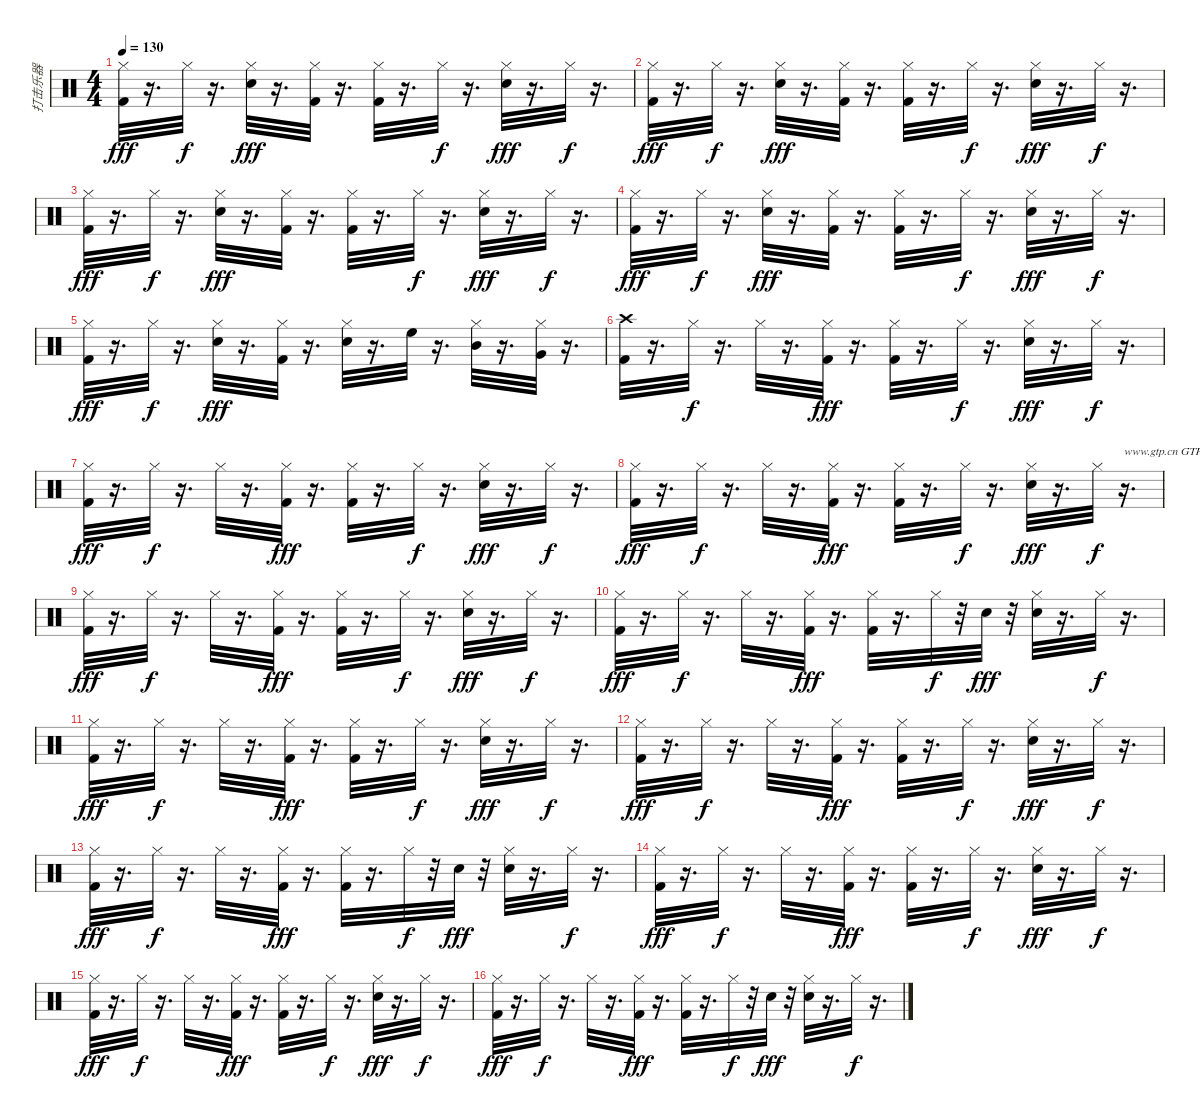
\track ("打击乐器" "打击乐器") {instrument percussion}
\staff {score}
\articulation defaults
\ts (4 4)
\tempo 130
\clef neutral
\ks c
("Kick (hit) 2" "Hi-Hat (closed)").32{dy fff} r.16{d} "Hi-Hat (closed)".32{dy f} r.16{d} ("Hi-Hat (closed)" "Electric Snare (hit)").32{dy fff} r.16{d} ("Kick (hit) 2" "Hi-Hat (closed)").32 r.16{d} ("Kick (hit) 2" "Hi-Hat (closed)").32 r.16{d} "Hi-Hat (closed)".32{dy f} r.16{d} ("Hi-Hat (closed)" "Electric Snare (hit)").32{dy fff} r.16{d} "Hi-Hat (closed)".32{dy f} r.16{d} |
("Kick (hit) 2" "Hi-Hat (closed)").32{dy fff} r.16{d} "Hi-Hat (closed)".32{dy f} r.16{d} ("Hi-Hat (closed)" "Electric Snare (hit)").32{dy fff} r.16{d} ("Kick (hit) 2" "Hi-Hat (closed)").32 r.16{d} ("Kick (hit) 2" "Hi-Hat (closed)").32 r.16{d} "Hi-Hat (closed)".32{dy f} r.16{d} ("Hi-Hat (closed)" "Electric Snare (hit)").32{dy fff} r.16{d} "Hi-Hat (closed)".32{dy f} r.16{d} |
("Kick (hit) 2" "Hi-Hat (closed)").32{dy fff} r.16{d} "Hi-Hat (closed)".32{dy f} r.16{d} ("Hi-Hat (closed)" "Electric Snare (hit)").32{dy fff} r.16{d} ("Kick (hit) 2" "Hi-Hat (closed)").32 r.16{d} ("Kick (hit) 2" "Hi-Hat (closed)").32 r.16{d} "Hi-Hat (closed)".32{dy f} r.16{d} ("Hi-Hat (closed)" "Electric Snare (hit)").32{dy fff} r.16{d} "Hi-Hat (closed)".32{dy f} r.16{d} |
("Kick (hit) 2" "Hi-Hat (closed)").32{dy fff} r.16{d} "Hi-Hat (closed)".32{dy f} r.16{d} ("Hi-Hat (closed)" "Electric Snare (hit)").32{dy fff} r.16{d} ("Kick (hit) 2" "Hi-Hat (closed)").32 r.16{d} ("Kick (hit) 2" "Hi-Hat (closed)").32 r.16{d} "Hi-Hat (closed)".32{dy f} r.16{d} ("Hi-Hat (closed)" "Electric Snare (hit)").32{dy fff} r.16{d} "Hi-Hat (closed)".32{dy f} r.16{d} |
("Hi-Hat (closed)" "Kick (hit) 2").32{dy fff} r.16{d} "Hi-Hat (closed)".32{dy f} r.16{d} ("Hi-Hat (closed)" "Electric Snare (hit)").32{dy fff} r.16{d} ("Kick (hit) 2" "Hi-Hat (closed)").32 r.16{d} ("Electric Snare (hit)" "Hi-Hat (closed)").32 r.16{d} "High Floor Tom (hit)".32 r.16{d} ("Hi-Hat (closed)" "Mid Tom (hit)").32 r.16{d} ("Very Low Tom (hit)" "Hi-Hat (closed)").32 r.16{d} |
("Crash high (hit)" "Kick (hit) 2").32 r.16{d} "Hi-Hat (closed)".32{dy f} r.16{d} "Hi-Hat (closed)".32 r.16{d} ("Kick (hit) 2" "Hi-Hat (closed)").32{dy fff} r.16{d} ("Kick (hit) 2" "Hi-Hat (closed)").32 r.16{d} "Hi-Hat (closed)".32{dy f} r.16{d} ("Hi-Hat (closed)" "Electric Snare (hit)").32{dy fff} r.16{d} "Hi-Hat (closed)".32{dy f} r.16{d} |
("Kick (hit) 2" "Hi-Hat (closed)").32{dy fff} r.16{d} "Hi-Hat (closed)".32{dy f} r.16{d} "Hi-Hat (closed)".32 r.16{d} ("Kick (hit) 2" "Hi-Hat (closed)").32{dy fff} r.16{d} ("Kick (hit) 2" "Hi-Hat (closed)").32 r.16{d} "Hi-Hat (closed)".32{dy f} r.16{d} ("Hi-Hat (closed)" "Electric Snare (hit)").32{dy fff} r.16{d} "Hi-Hat (closed)".32{dy f} r.16{d} |
("Kick (hit) 2" "Hi-Hat (closed)").32{dy fff} r.16{d} "Hi-Hat (closed)".32{dy f} r.16{d} "Hi-Hat (closed)".32 r.16{d} ("Kick (hit) 2" "Hi-Hat (closed)").32{dy fff} r.16{d} ("Kick (hit) 2" "Hi-Hat (closed)").32 r.16{d} "Hi-Hat (closed)".32{dy f} r.16{d} ("Hi-Hat (closed)" "Electric Snare (hit)").32{dy fff} r.16{d} "Hi-Hat (closed)".32{dy f} r.16{d txt "www.gtp.cn GTP中文网为您提供优秀的谱子"} |
("Kick (hit) 2" "Hi-Hat (closed)").32{dy fff} r.16{d} "Hi-Hat (closed)".32{dy f} r.16{d} "Hi-Hat (closed)".32 r.16{d} ("Kick (hit) 2" "Hi-Hat (closed)").32{dy fff} r.16{d} ("Kick (hit) 2" "Hi-Hat (closed)").32 r.16{d} "Hi-Hat (closed)".32{dy f} r.16{d} ("Hi-Hat (closed)" "Electric Snare (hit)").32{dy fff} r.16{d} "Hi-Hat (closed)".32{dy f} r.16{d} |
("Hi-Hat (closed)" "Kick (hit) 2").32{dy fff} r.16{d} "Hi-Hat (closed)".32{dy f} r.16{d} "Hi-Hat (closed)".32 r.16{d} ("Kick (hit) 2" "Hi-Hat (closed)").32{dy fff} r.16{d} ("Kick (hit) 2" "Hi-Hat (closed)").32 r.16{d} "Hi-Hat (closed)".32{dy f} r.32 "Electric Snare (hit)".32{dy fff} r.32 ("Electric Snare (hit)" "Hi-Hat (closed)").32 r.16{d} "Hi-Hat (closed)".32{dy f} r.16{d} |
("Hi-Hat (closed)" "Kick (hit) 2").32{dy fff} r.16{d} "Hi-Hat (closed)".32{dy f} r.16{d} "Hi-Hat (closed)".32 r.16{d} ("Kick (hit) 2" "Hi-Hat (closed)").32{dy fff} r.16{d} ("Kick (hit) 2" "Hi-Hat (closed)").32 r.16{d} "Hi-Hat (closed)".32{dy f} r.16{d} ("Hi-Hat (closed)" "Electric Snare (hit)").32{dy fff} r.16{d} "Hi-Hat (closed)".32{dy f} r.16{d} |
("Hi-Hat (closed)" "Kick (hit) 2").32{dy fff} r.16{d} "Hi-Hat (closed)".32{dy f} r.16{d} "Hi-Hat (closed)".32 r.16{d} ("Kick (hit) 2" "Hi-Hat (closed)").32{dy fff} r.16{d} ("Kick (hit) 2" "Hi-Hat (closed)").32 r.16{d} "Hi-Hat (closed)".32{dy f} r.16{d} ("Hi-Hat (closed)" "Electric Snare (hit)").32{dy fff} r.16{d} "Hi-Hat (closed)".32{dy f} r.16{d} |
("Hi-Hat (closed)" "Kick (hit) 2").32{dy fff} r.16{d} "Hi-Hat (closed)".32{dy f} r.16{d} "Hi-Hat (closed)".32 r.16{d} ("Kick (hit) 2" "Hi-Hat (closed)").32{dy fff} r.16{d} ("Kick (hit) 2" "Hi-Hat (closed)").32 r.16{d} "Hi-Hat (closed)".32{dy f} r.32 "Electric Snare (hit)".32{dy fff} r.32 ("Electric Snare (hit)" "Hi-Hat (closed)").32 r.16{d} "Hi-Hat (closed)".32{dy f} r.16{d} |
("Hi-Hat (closed)" "Kick (hit) 2").32{dy fff} r.16{d} "Hi-Hat (closed)".32{dy f} r.16{d} "Hi-Hat (closed)".32 r.16{d} ("Kick (hit) 2" "Hi-Hat (closed)").32{dy fff} r.16{d} ("Kick (hit) 2" "Hi-Hat (closed)").32 r.16{d} "Hi-Hat (closed)".32{dy f} r.16{d} ("Hi-Hat (closed)" "Electric Snare (hit)").32{dy fff} r.16{d} "Hi-Hat (closed)".32{dy f} r.16{d} |
("Kick (hit) 2" "Hi-Hat (closed)").32{dy fff} r.16{d} "Hi-Hat (closed)".32{dy f} r.16{d} "Hi-Hat (closed)".32 r.16{d} ("Kick (hit) 2" "Hi-Hat (closed)").32{dy fff} r.16{d} ("Kick (hit) 2" "Hi-Hat (closed)").32 r.16{d} "Hi-Hat (closed)".32{dy f} r.16{d} ("Hi-Hat (closed)" "Electric Snare (hit)").32{dy fff} r.16{d} "Hi-Hat (closed)".32{dy f} r.16{d} |
("Hi-Hat (closed)" "Kick (hit) 2").32{dy fff} r.16{d} "Hi-Hat (closed)".32{dy f} r.16{d} "Hi-Hat (closed)".32 r.16{d} ("Kick (hit) 2" "Hi-Hat (closed)").32{dy fff} r.16{d} ("Kick (hit) 2" "Hi-Hat (closed)").32 r.16{d} "Hi-Hat (closed)".32{dy f} r.32 "Electric Snare (hit)".32{dy fff} r.32 ("Electric Snare (hit)" "Hi-Hat (closed)").32 r.16{d} "Hi-Hat (closed)".32{dy f} r.16{d}
